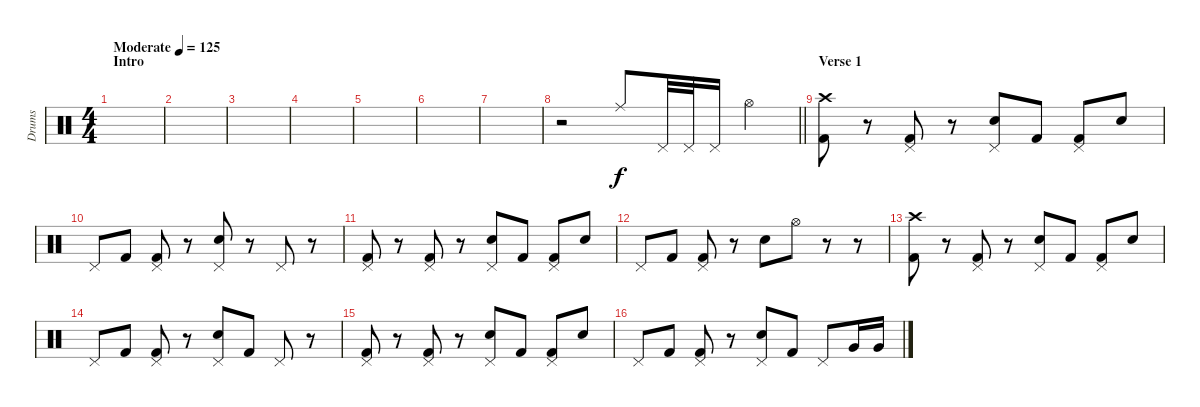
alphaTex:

\track ("Drums" "Drums") {instrument percussion}
\staff {score}
\articulation defaults
\ts (4 4)
\section ("" "Intro")
\tempo (125 "Moderate")
\clef neutral
\ks c
|
|
|
|
|
|
|
\barLineRight lightlight
r.2 "Ride (middle)".8 "Pedal Hi-Hat (hit)".32 "Pedal Hi-Hat (hit)".32 "Pedal Hi-Hat (hit)".16 "Hi-Hat (open)".4 |
\section ("" "Verse 1")
("Crash high (hit)" "Kick (hit) 2").8 r.8 ("Pedal Hi-Hat (hit)" "Kick (hit) 2").8 r.8 ("Pedal Hi-Hat (hit)" "Snare (hit) 2").8 "Kick (hit) 2".8 ("Pedal Hi-Hat (hit)" "Kick (hit) 2").8 "Snare (hit) 2".8 |
"Pedal Hi-Hat (hit)".8 "Kick (hit) 2".8 ("Pedal Hi-Hat (hit)" "Kick (hit) 2").8 r.8 ("Pedal Hi-Hat (hit)" "Snare (hit) 2").8 r.8 "Pedal Hi-Hat (hit)".8 r.8 |
("Pedal Hi-Hat (hit)" "Kick (hit) 2").8 r.8 ("Pedal Hi-Hat (hit)" "Kick (hit) 2").8 r.8 ("Pedal Hi-Hat (hit)" "Snare (hit) 2").8 "Kick (hit) 2".8 ("Pedal Hi-Hat (hit)" "Kick (hit) 2").8 "Snare (hit) 2".8 |
"Pedal Hi-Hat (hit)".8 "Kick (hit) 2".8 ("Pedal Hi-Hat (hit)" "Kick (hit) 2").8 r.8 "Snare (hit) 2".8 "Hi-Hat (open)".8 r.8 r.8 |
("Crash high (hit)" "Kick (hit) 2").8 r.8 ("Pedal Hi-Hat (hit)" "Kick (hit) 2").8 r.8 ("Pedal Hi-Hat (hit)" "Snare (hit) 2").8 "Kick (hit) 2".8 ("Pedal Hi-Hat (hit)" "Kick (hit) 2").8 "Snare (hit) 2".8 |
"Pedal Hi-Hat (hit)".8 "Kick (hit) 2".8 ("Pedal Hi-Hat (hit)" "Kick (hit) 2").8 r.8 ("Pedal Hi-Hat (hit)" "Snare (hit) 2").8 "Kick (hit) 2".8 "Pedal Hi-Hat (hit)".8 r.8 |
("Pedal Hi-Hat (hit)" "Kick (hit) 2").8 r.8 ("Pedal Hi-Hat (hit)" "Kick (hit) 2").8 r.8 ("Pedal Hi-Hat (hit)" "Snare (hit) 2").8 "Kick (hit) 2".8 ("Pedal Hi-Hat (hit)" "Kick (hit) 2").8 "Snare (hit) 2".8 |
"Pedal Hi-Hat (hit)".8 "Kick (hit) 2".8 ("Pedal Hi-Hat (hit)" "Kick (hit) 2").8 r.8 ("Pedal Hi-Hat (hit)" "Snare (hit) 2").8 "Kick (hit) 2".8 "Pedal Hi-Hat (hit)".8 "Very Low Tom (hit)".16 "Very Low Tom (hit)".16
